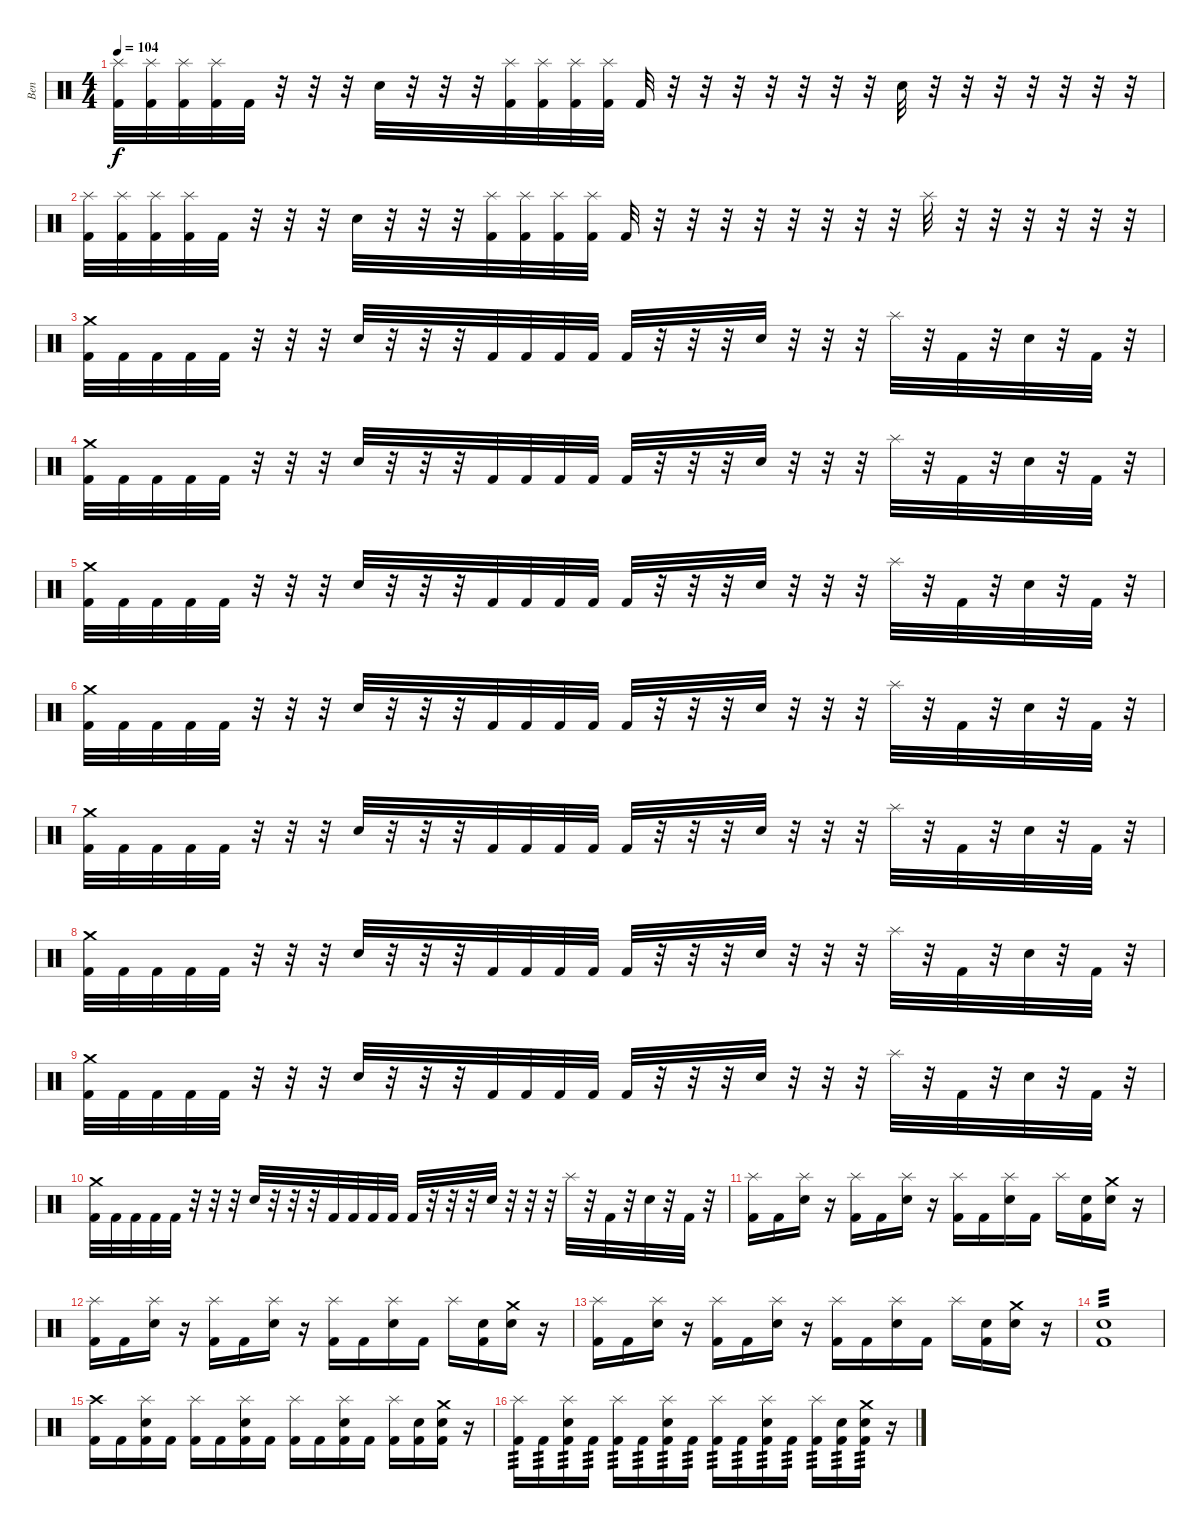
\track ("Ben" "Ben") {instrument percussion}
\staff {score}
\articulation defaults
\ts (4 4)
\tempo 104
\clef neutral
\ks c
("Splash (hit)" "Kick (hit) 2").32{dy f} ("Splash (hit)" "Kick (hit) 2").32 ("Splash (hit)" "Kick (hit) 2").32 ("Splash (hit)" "Kick (hit) 2").32 "Kick (hit) 2".32 r.32 r.32 r.32 "Snare (hit) 2".32 r.32 r.32 r.32 ("Splash (hit)" "Kick (hit) 2").32 ("Splash (hit)" "Kick (hit) 2").32 ("Splash (hit)" "Kick (hit) 2").32 ("Splash (hit)" "Kick (hit) 2").32 "Kick (hit) 2".32 r.32 r.32 r.32 r.32 r.32 r.32 r.32 "Snare (hit) 2".32 r.32 r.32 r.32 r.32 r.32 r.32 r.32 |
("Splash (hit)" "Kick (hit) 2").32 ("Splash (hit)" "Kick (hit) 2").32 ("Splash (hit)" "Kick (hit) 2").32 ("Splash (hit)" "Kick (hit) 2").32 "Kick (hit) 2".32 r.32 r.32 r.32 "Snare (hit) 2".32 r.32 r.32 r.32 ("Splash (hit)" "Kick (hit) 2").32 ("Splash (hit)" "Kick (hit) 2").32 ("Splash (hit)" "Kick (hit) 2").32 ("Splash (hit)" "Kick (hit) 2").32 "Kick (hit) 2".32 r.32 r.32 r.32 r.32 r.32 r.32 r.32 r.32 "Splash (hit)".32 r.32 r.32 r.32 r.32 r.32 r.32 |
("Crash medium (hit)" "Kick (hit) 2").32 "Kick (hit) 2".32 "Kick (hit) 2".32 "Kick (hit) 2".32 "Kick (hit) 2".32 r.32 r.32 r.32 "Snare (hit) 2".32 r.32 r.32 r.32 "Kick (hit) 2".32 "Kick (hit) 2".32 "Kick (hit) 2".32 "Kick (hit) 2".32 "Kick (hit) 2".32 r.32 r.32 r.32 "Snare (hit) 2".32 r.32 r.32 r.32 "Splash (hit)".32 r.32 "Kick (hit) 2".32 r.32 "Snare (hit) 2".32 r.32 "Kick (hit) 2".32 r.32 |
("Crash medium (hit)" "Kick (hit) 2").32 "Kick (hit) 2".32 "Kick (hit) 2".32 "Kick (hit) 2".32 "Kick (hit) 2".32 r.32 r.32 r.32 "Snare (hit) 2".32 r.32 r.32 r.32 "Kick (hit) 2".32 "Kick (hit) 2".32 "Kick (hit) 2".32 "Kick (hit) 2".32 "Kick (hit) 2".32 r.32 r.32 r.32 "Snare (hit) 2".32 r.32 r.32 r.32 "Splash (hit)".32 r.32 "Kick (hit) 2".32 r.32 "Snare (hit) 2".32 r.32 "Kick (hit) 2".32 r.32 |
("Crash medium (hit)" "Kick (hit) 2").32 "Kick (hit) 2".32 "Kick (hit) 2".32 "Kick (hit) 2".32 "Kick (hit) 2".32 r.32 r.32 r.32 "Snare (hit) 2".32 r.32 r.32 r.32 "Kick (hit) 2".32 "Kick (hit) 2".32 "Kick (hit) 2".32 "Kick (hit) 2".32 "Kick (hit) 2".32 r.32 r.32 r.32 "Snare (hit) 2".32 r.32 r.32 r.32 "Splash (hit)".32 r.32 "Kick (hit) 2".32 r.32 "Snare (hit) 2".32 r.32 "Kick (hit) 2".32 r.32 |
("Crash medium (hit)" "Kick (hit) 2").32 "Kick (hit) 2".32 "Kick (hit) 2".32 "Kick (hit) 2".32 "Kick (hit) 2".32 r.32 r.32 r.32 "Snare (hit) 2".32 r.32 r.32 r.32 "Kick (hit) 2".32 "Kick (hit) 2".32 "Kick (hit) 2".32 "Kick (hit) 2".32 "Kick (hit) 2".32 r.32 r.32 r.32 "Snare (hit) 2".32 r.32 r.32 r.32 "Splash (hit)".32 r.32 "Kick (hit) 2".32 r.32 "Snare (hit) 2".32 r.32 "Kick (hit) 2".32 r.32 |
("Crash medium (hit)" "Kick (hit) 2").32 "Kick (hit) 2".32 "Kick (hit) 2".32 "Kick (hit) 2".32 "Kick (hit) 2".32 r.32 r.32 r.32 "Snare (hit) 2".32 r.32 r.32 r.32 "Kick (hit) 2".32 "Kick (hit) 2".32 "Kick (hit) 2".32 "Kick (hit) 2".32 "Kick (hit) 2".32 r.32 r.32 r.32 "Snare (hit) 2".32 r.32 r.32 r.32 "Splash (hit)".32 r.32 "Kick (hit) 2".32 r.32 "Snare (hit) 2".32 r.32 "Kick (hit) 2".32 r.32 |
("Crash medium (hit)" "Kick (hit) 2").32 "Kick (hit) 2".32 "Kick (hit) 2".32 "Kick (hit) 2".32 "Kick (hit) 2".32 r.32 r.32 r.32 "Snare (hit) 2".32 r.32 r.32 r.32 "Kick (hit) 2".32 "Kick (hit) 2".32 "Kick (hit) 2".32 "Kick (hit) 2".32 "Kick (hit) 2".32 r.32 r.32 r.32 "Snare (hit) 2".32 r.32 r.32 r.32 "Splash (hit)".32 r.32 "Kick (hit) 2".32 r.32 "Snare (hit) 2".32 r.32 "Kick (hit) 2".32 r.32 |
("Crash medium (hit)" "Kick (hit) 2").32 "Kick (hit) 2".32 "Kick (hit) 2".32 "Kick (hit) 2".32 "Kick (hit) 2".32 r.32 r.32 r.32 "Snare (hit) 2".32 r.32 r.32 r.32 "Kick (hit) 2".32 "Kick (hit) 2".32 "Kick (hit) 2".32 "Kick (hit) 2".32 "Kick (hit) 2".32 r.32 r.32 r.32 "Snare (hit) 2".32 r.32 r.32 r.32 "Splash (hit)".32 r.32 "Kick (hit) 2".32 r.32 "Snare (hit) 2".32 r.32 "Kick (hit) 2".32 r.32 |
("Crash medium (hit)" "Kick (hit) 2").32 "Kick (hit) 2".32 "Kick (hit) 2".32 "Kick (hit) 2".32 "Kick (hit) 2".32 r.32 r.32 r.32 "Snare (hit) 2".32 r.32 r.32 r.32 "Kick (hit) 2".32 "Kick (hit) 2".32 "Kick (hit) 2".32 "Kick (hit) 2".32 "Kick (hit) 2".32 r.32 r.32 r.32 "Snare (hit) 2".32 r.32 r.32 r.32 "Splash (hit)".32 r.32 "Kick (hit) 2".32 r.32 "Snare (hit) 2".32 r.32 "Kick (hit) 2".32 r.32 |
("Splash (hit)" "Kick (hit) 2").16 "Kick (hit) 2".16 ("Splash (hit)" "Snare (hit) 2").16 r.16 ("Splash (hit)" "Kick (hit) 2").16 "Kick (hit) 2".16 ("Splash (hit)" "Snare (hit) 2").16 r.16 ("Splash (hit)" "Kick (hit) 2").16 "Kick (hit) 2".16 ("Splash (hit)" "Snare (hit) 2").16 "Kick (hit) 2".16 "Splash (hit)".16 ("Snare (hit) 2" "Kick (hit) 2").16 ("Crash medium (hit)" "Snare (hit) 2").16 r.16 |
("Splash (hit)" "Kick (hit) 2").16 "Kick (hit) 2".16 ("Splash (hit)" "Snare (hit) 2").16 r.16 ("Splash (hit)" "Kick (hit) 2").16 "Kick (hit) 2".16 ("Splash (hit)" "Snare (hit) 2").16 r.16 ("Splash (hit)" "Kick (hit) 2").16 "Kick (hit) 2".16 ("Splash (hit)" "Snare (hit) 2").16 "Kick (hit) 2".16 "Splash (hit)".16 ("Snare (hit) 2" "Kick (hit) 2").16 ("Crash medium (hit)" "Snare (hit) 2").16 r.16 |
("Splash (hit)" "Kick (hit) 2").16 "Kick (hit) 2".16 ("Splash (hit)" "Snare (hit) 2").16 r.16 ("Splash (hit)" "Kick (hit) 2").16 "Kick (hit) 2".16 ("Splash (hit)" "Snare (hit) 2").16 r.16 ("Splash (hit)" "Kick (hit) 2").16 "Kick (hit) 2".16 ("Splash (hit)" "Snare (hit) 2").16 "Kick (hit) 2".16 "Splash (hit)".16 ("Snare (hit) 2" "Kick (hit) 2").16 ("Crash medium (hit)" "Snare (hit) 2").16 r.16 |
("Snare (hit) 2" "Kick (hit) 2").1{tp 3} |
("Crash high (hit)" "Kick (hit) 2").16 "Kick (hit) 2".16 ("Splash (hit)" "Snare (hit) 2" "Kick (hit) 2").16 "Kick (hit) 2".16 ("Splash (hit)" "Kick (hit) 2").16 "Kick (hit) 2".16 ("Splash (hit)" "Snare (hit) 2" "Kick (hit) 2").16 "Kick (hit) 2".16 ("Splash (hit)" "Kick (hit) 2").16 "Kick (hit) 2".16 ("Splash (hit)" "Snare (hit) 2" "Kick (hit) 2").16 "Kick (hit) 2".16 ("Splash (hit)" "Kick (hit) 2").16 ("Snare (hit) 2" "Kick (hit) 2").16 ("Crash medium (hit)" "Snare (hit) 2" "Kick (hit) 2").16 r.16 |
("Splash (hit)" "Kick (hit) 2").16{tp 3} "Kick (hit) 2".16{tp 3} ("Splash (hit)" "Snare (hit) 2" "Kick (hit) 2").16{tp 3} "Kick (hit) 2".16{tp 3} ("Splash (hit)" "Kick (hit) 2").16{tp 3} "Kick (hit) 2".16{tp 3} ("Splash (hit)" "Snare (hit) 2" "Kick (hit) 2").16{tp 3} "Kick (hit) 2".16{tp 3} ("Splash (hit)" "Kick (hit) 2").16{tp 3} "Kick (hit) 2".16{tp 3} ("Splash (hit)" "Snare (hit) 2" "Kick (hit) 2").16{tp 3} "Kick (hit) 2".16{tp 3} ("Splash (hit)" "Kick (hit) 2").16{tp 3} ("Snare (hit) 2" "Kick (hit) 2").16{tp 3} ("Crash medium (hit)" "Snare (hit) 2" "Kick (hit) 2").16{tp 3} r.16
